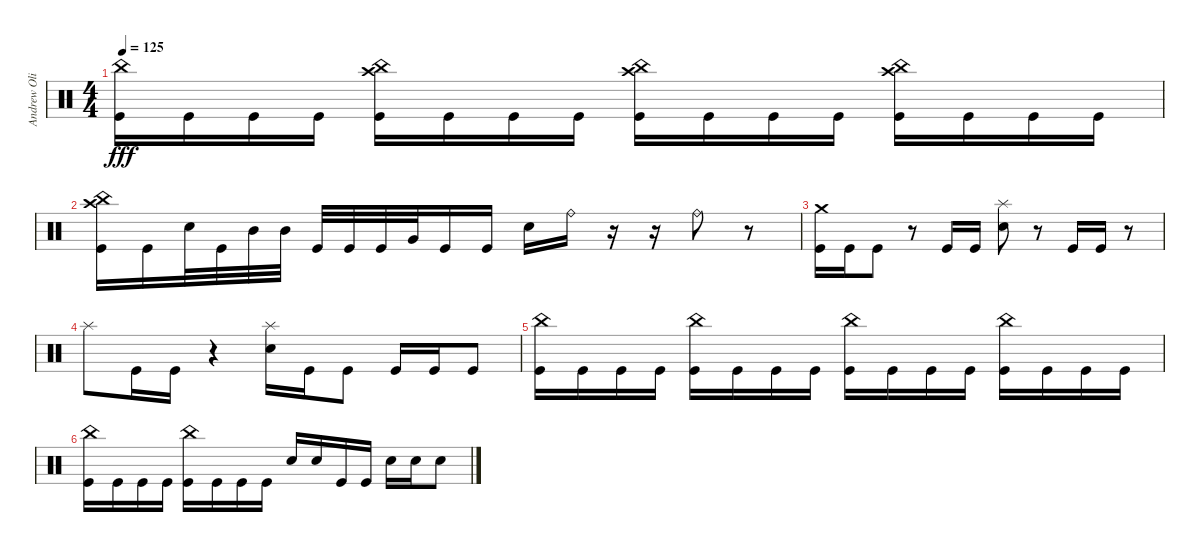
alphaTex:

\track ("Andrew Oliver" "Andrew Oli") {instrument percussion}
\staff {score}
\articulation defaults
\ts (4 4)
\tempo 125
\clef neutral
\ks c
("China (hit)" "Kick (hit)").16{dy fff} "Kick (hit)".16 "Kick (hit)".16 "Kick (hit)".16 ("China (hit)" "Crash high (hit)" "Kick (hit)").16 "Kick (hit)".16 "Kick (hit)".16 "Kick (hit)".16 ("China (hit)" "Crash high (hit)" "Kick (hit)").16 "Kick (hit)".16 "Kick (hit)".16 "Kick (hit)".16 ("China (hit)" "Crash high (hit)" "Kick (hit)").16 "Kick (hit)".16 "Kick (hit)".16 "Kick (hit)".16 |
("China (hit)" "Crash high (hit)" "Kick (hit)").16 "Kick (hit)".16 "Electric Snare (hit)".32 "Kick (hit)".32 "Mid Tom (hit)".32 "Mid Tom (hit)".32 "Kick (hit)".32 "Kick (hit)".32 "Kick (hit)".32 "Very Low Tom (hit)".32 "Kick (hit)".16 "Kick (hit)".16 "Electric Snare (hit)".16 "Ride (bell)".16 r.16 r.16 "Ride (bell)".8 r.8 |
("Crash medium (hit)" "Kick (hit)").16 "Kick (hit)".16 "Kick (hit)".8 r.8 "Kick (hit)".16 "Kick (hit)".16 ("Splash (hit)" "Electric Snare (hit)").8 r.8 "Kick (hit)".16 "Kick (hit)".16 r.8 |
"Splash (hit)".8 "Kick (hit)".16 "Kick (hit)".16 r.4 ("Splash (hit)" "Electric Snare (hit)").16 "Kick (hit)".16 "Kick (hit)".8 "Kick (hit)".16 "Kick (hit)".16 "Kick (hit)".8 |
("China (hit)" "Kick (hit)").16 "Kick (hit)".16 "Kick (hit)".16 "Kick (hit)".16 ("China (hit)" "Kick (hit)").16 "Kick (hit)".16 "Kick (hit)".16 "Kick (hit)".16 ("China (hit)" "Kick (hit)").16 "Kick (hit)".16 "Kick (hit)".16 "Kick (hit)".16 ("China (hit)" "Kick (hit)").16 "Kick (hit)".16 "Kick (hit)".16 "Kick (hit)".16 |
("China (hit)" "Kick (hit)").16 "Kick (hit)".16 "Kick (hit)".16 "Kick (hit)".16 ("China (hit)" "Kick (hit)").16 "Kick (hit)".16 "Kick (hit)".16 "Kick (hit)".16 "Electric Snare (hit)".16 "Electric Snare (hit)".16 "Kick (hit)".16 "Kick (hit)".16 "Electric Snare (hit)".16 "Electric Snare (hit)".16 "Electric Snare (hit)".8
